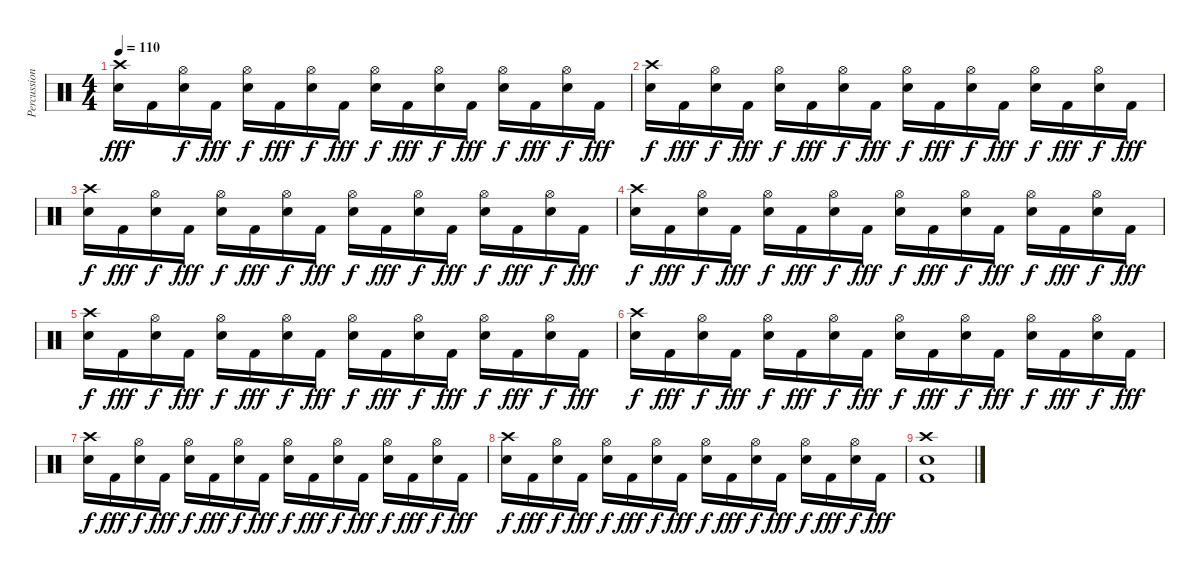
\track ("Percussion" "Percussion") {instrument percussion}
\staff {score}
\articulation defaults
\ts (4 4)
\section ("" "")
\tempo 110
\clef neutral
\ks c
("Crash high (hit)" "Snare (hit) 2").16{dy fff} "Kick (hit) 2".16 ("Hi-Hat (open)" "Snare (hit) 2").16{dy f} "Kick (hit) 2".16{dy fff} ("Hi-Hat (open)" "Snare (hit) 2").16{dy f} "Kick (hit) 2".16{dy fff} ("Hi-Hat (open)" "Snare (hit) 2").16{dy f} "Kick (hit) 2".16{dy fff} ("Hi-Hat (open)" "Snare (hit) 2").16{dy f} "Kick (hit) 2".16{dy fff} ("Hi-Hat (open)" "Snare (hit) 2").16{dy f} "Kick (hit) 2".16{dy fff} ("Hi-Hat (open)" "Snare (hit) 2").16{dy f} "Kick (hit) 2".16{dy fff} ("Hi-Hat (open)" "Snare (hit) 2").16{dy f} "Kick (hit) 2".16{dy fff} |
("Crash high (hit)" "Snare (hit) 2").16{dy f} "Kick (hit) 2".16{dy fff} ("Hi-Hat (open)" "Snare (hit) 2").16{dy f} "Kick (hit) 2".16{dy fff} ("Hi-Hat (open)" "Snare (hit) 2").16{dy f} "Kick (hit) 2".16{dy fff} ("Hi-Hat (open)" "Snare (hit) 2").16{dy f} "Kick (hit) 2".16{dy fff} ("Hi-Hat (open)" "Snare (hit) 2").16{dy f} "Kick (hit) 2".16{dy fff} ("Hi-Hat (open)" "Snare (hit) 2").16{dy f} "Kick (hit) 2".16{dy fff} ("Hi-Hat (open)" "Snare (hit) 2").16{dy f} "Kick (hit) 2".16{dy fff} ("Hi-Hat (open)" "Snare (hit) 2").16{dy f} "Kick (hit) 2".16{dy fff} |
("Crash high (hit)" "Snare (hit) 2").16{dy f} "Kick (hit) 2".16{dy fff} ("Hi-Hat (open)" "Snare (hit) 2").16{dy f} "Kick (hit) 2".16{dy fff} ("Hi-Hat (open)" "Snare (hit) 2").16{dy f} "Kick (hit) 2".16{dy fff} ("Hi-Hat (open)" "Snare (hit) 2").16{dy f} "Kick (hit) 2".16{dy fff} ("Hi-Hat (open)" "Snare (hit) 2").16{dy f} "Kick (hit) 2".16{dy fff} ("Hi-Hat (open)" "Snare (hit) 2").16{dy f} "Kick (hit) 2".16{dy fff} ("Hi-Hat (open)" "Snare (hit) 2").16{dy f} "Kick (hit) 2".16{dy fff} ("Hi-Hat (open)" "Snare (hit) 2").16{dy f} "Kick (hit) 2".16{dy fff} |
("Crash high (hit)" "Snare (hit) 2").16{dy f} "Kick (hit) 2".16{dy fff} ("Hi-Hat (open)" "Snare (hit) 2").16{dy f} "Kick (hit) 2".16{dy fff} ("Hi-Hat (open)" "Snare (hit) 2").16{dy f} "Kick (hit) 2".16{dy fff} ("Hi-Hat (open)" "Snare (hit) 2").16{dy f} "Kick (hit) 2".16{dy fff} ("Hi-Hat (open)" "Snare (hit) 2").16{dy f} "Kick (hit) 2".16{dy fff} ("Hi-Hat (open)" "Snare (hit) 2").16{dy f} "Kick (hit) 2".16{dy fff} ("Hi-Hat (open)" "Snare (hit) 2").16{dy f} "Kick (hit) 2".16{dy fff} ("Hi-Hat (open)" "Snare (hit) 2").16{dy f} "Kick (hit) 2".16{dy fff} |
("Crash high (hit)" "Snare (hit) 2").16{dy f} "Kick (hit) 2".16{dy fff} ("Hi-Hat (open)" "Snare (hit) 2").16{dy f} "Kick (hit) 2".16{dy fff} ("Hi-Hat (open)" "Snare (hit) 2").16{dy f} "Kick (hit) 2".16{dy fff} ("Hi-Hat (open)" "Snare (hit) 2").16{dy f} "Kick (hit) 2".16{dy fff} ("Hi-Hat (open)" "Snare (hit) 2").16{dy f} "Kick (hit) 2".16{dy fff} ("Hi-Hat (open)" "Snare (hit) 2").16{dy f} "Kick (hit) 2".16{dy fff} ("Hi-Hat (open)" "Snare (hit) 2").16{dy f} "Kick (hit) 2".16{dy fff} ("Hi-Hat (open)" "Snare (hit) 2").16{dy f} "Kick (hit) 2".16{dy fff} |
("Crash high (hit)" "Snare (hit) 2").16{dy f} "Kick (hit) 2".16{dy fff} ("Hi-Hat (open)" "Snare (hit) 2").16{dy f} "Kick (hit) 2".16{dy fff} ("Hi-Hat (open)" "Snare (hit) 2").16{dy f} "Kick (hit) 2".16{dy fff} ("Hi-Hat (open)" "Snare (hit) 2").16{dy f} "Kick (hit) 2".16{dy fff} ("Hi-Hat (open)" "Snare (hit) 2").16{dy f} "Kick (hit) 2".16{dy fff} ("Hi-Hat (open)" "Snare (hit) 2").16{dy f} "Kick (hit) 2".16{dy fff} ("Hi-Hat (open)" "Snare (hit) 2").16{dy f} "Kick (hit) 2".16{dy fff} ("Hi-Hat (open)" "Snare (hit) 2").16{dy f} "Kick (hit) 2".16{dy fff} |
("Crash high (hit)" "Snare (hit) 2").16{dy f} "Kick (hit) 2".16{dy fff} ("Hi-Hat (open)" "Snare (hit) 2").16{dy f} "Kick (hit) 2".16{dy fff} ("Hi-Hat (open)" "Snare (hit) 2").16{dy f} "Kick (hit) 2".16{dy fff} ("Hi-Hat (open)" "Snare (hit) 2").16{dy f} "Kick (hit) 2".16{dy fff} ("Hi-Hat (open)" "Snare (hit) 2").16{dy f} "Kick (hit) 2".16{dy fff} ("Hi-Hat (open)" "Snare (hit) 2").16{dy f} "Kick (hit) 2".16{dy fff} ("Hi-Hat (open)" "Snare (hit) 2").16{dy f} "Kick (hit) 2".16{dy fff} ("Hi-Hat (open)" "Snare (hit) 2").16{dy f} "Kick (hit) 2".16{dy fff} |
("Crash high (hit)" "Snare (hit) 2").16{dy f} "Kick (hit) 2".16{dy fff} ("Hi-Hat (open)" "Snare (hit) 2").16{dy f} "Kick (hit) 2".16{dy fff} ("Hi-Hat (open)" "Snare (hit) 2").16{dy f} "Kick (hit) 2".16{dy fff} ("Hi-Hat (open)" "Snare (hit) 2").16{dy f} "Kick (hit) 2".16{dy fff} ("Hi-Hat (open)" "Snare (hit) 2").16{dy f} "Kick (hit) 2".16{dy fff} ("Hi-Hat (open)" "Snare (hit) 2").16{dy f} "Kick (hit) 2".16{dy fff} ("Hi-Hat (open)" "Snare (hit) 2").16{dy f} "Kick (hit) 2".16{dy fff} ("Hi-Hat (open)" "Snare (hit) 2").16{dy f} "Kick (hit) 2".16{dy fff} |
("Crash high (hit)" "Snare (hit) 2" "Kick (hit) 2").1
